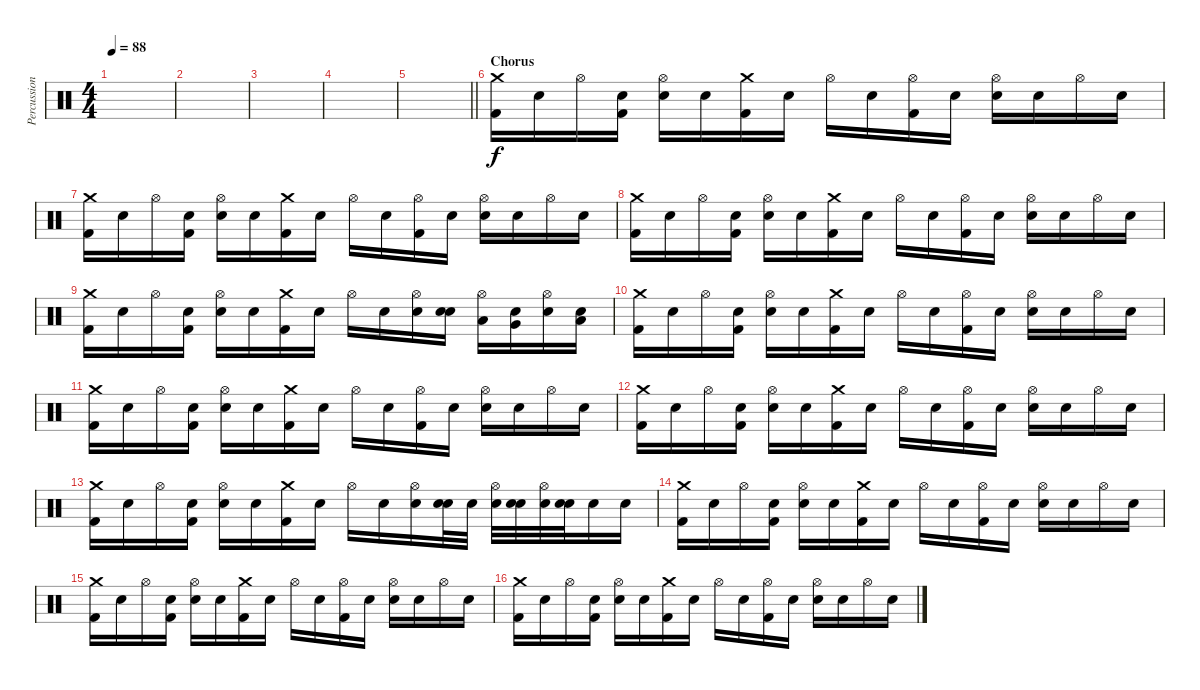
\track ("Percussion" "Percussion") {instrument percussion}
\staff {score}
\articulation defaults
\ts (4 4)
\tempo 88
\clef neutral
\ks c
|
|
|
|
\barLineRight lightlight
|
\section ("" "Chorus")
("Crash medium (hit)" "Kick (hit) 2").16 "Snare (hit)".16 "Hi-Hat (open)".16 ("Snare (hit)" "Kick (hit) 2").16 ("Hi-Hat (open)" "Electric Snare (hit)").16 "Snare (hit)".16 ("Crash medium (hit)" "Kick (hit) 2").16 "Snare (hit)".16 "Hi-Hat (open)".16 "Snare (hit)".16 ("Hi-Hat (open)" "Kick (hit) 2").16 "Snare (hit)".16 ("Hi-Hat (open)" "Electric Snare (hit)").16 "Snare (hit)".16 "Hi-Hat (open)".16 "Snare (hit)".16 |
("Crash medium (hit)" "Kick (hit) 2").16 "Snare (hit)".16 "Hi-Hat (open)".16 ("Snare (hit)" "Kick (hit) 2").16 ("Hi-Hat (open)" "Electric Snare (hit)").16 "Snare (hit)".16 ("Crash medium (hit)" "Kick (hit) 2").16 "Snare (hit)".16 "Hi-Hat (open)".16 "Snare (hit)".16 ("Hi-Hat (open)" "Kick (hit) 2").16 "Snare (hit)".16 ("Hi-Hat (open)" "Electric Snare (hit)").16 "Snare (hit)".16 "Hi-Hat (open)".16 "Snare (hit)".16 |
("Crash medium (hit)" "Kick (hit) 2").16 "Snare (hit)".16 "Hi-Hat (open)".16 ("Snare (hit)" "Kick (hit) 2").16 ("Hi-Hat (open)" "Electric Snare (hit)").16 "Snare (hit)".16 ("Crash medium (hit)" "Kick (hit) 2").16 "Snare (hit)".16 "Hi-Hat (open)".16 "Snare (hit)".16 ("Hi-Hat (open)" "Kick (hit) 2").16 "Snare (hit)".16 ("Hi-Hat (open)" "Electric Snare (hit)").16 "Snare (hit)".16 "Hi-Hat (open)".16 "Snare (hit)".16 |
("Crash medium (hit)" "Kick (hit) 2").16 "Snare (hit)".16 "Hi-Hat (open)".16 ("Snare (hit)" "Kick (hit) 2").16 ("Hi-Hat (open)" "Electric Snare (hit)").16 "Snare (hit)".16 ("Crash medium (hit)" "Kick (hit) 2").16 "Snare (hit)".16 "Hi-Hat (open)".16 "Snare (hit)".16 ("Hi-Hat (open)" "Electric Snare (hit)").16 ("Snare (hit)" "Electric Snare (hit)").16 ("Hi-Hat (open)" "Low Tom (hit)").16 ("Snare (hit)" "Very Low Tom (hit)").16 ("Hi-Hat (open)" "Electric Snare (hit)").16 ("Snare (hit)" "Low Floor Tom (hit)").16 |
("Crash medium (hit)" "Kick (hit) 2").16 "Snare (hit)".16 "Hi-Hat (open)".16 ("Snare (hit)" "Kick (hit) 2").16 ("Hi-Hat (open)" "Electric Snare (hit)").16 "Snare (hit)".16 ("Crash medium (hit)" "Kick (hit) 2").16 "Snare (hit)".16 "Hi-Hat (open)".16 "Snare (hit)".16 ("Hi-Hat (open)" "Kick (hit) 2").16 "Snare (hit)".16 ("Hi-Hat (open)" "Electric Snare (hit)").16 "Snare (hit)".16 "Hi-Hat (open)".16 "Snare (hit)".16 |
("Crash medium (hit)" "Kick (hit) 2").16 "Snare (hit)".16 "Hi-Hat (open)".16 ("Snare (hit)" "Kick (hit) 2").16 ("Hi-Hat (open)" "Electric Snare (hit)").16 "Snare (hit)".16 ("Crash medium (hit)" "Kick (hit) 2").16 "Snare (hit)".16 "Hi-Hat (open)".16 "Snare (hit)".16 ("Hi-Hat (open)" "Kick (hit) 2").16 "Snare (hit)".16 ("Hi-Hat (open)" "Electric Snare (hit)").16 "Snare (hit)".16 "Hi-Hat (open)".16 "Snare (hit)".16 |
("Crash medium (hit)" "Kick (hit) 2").16 "Snare (hit)".16 "Hi-Hat (open)".16 ("Snare (hit)" "Kick (hit) 2").16 ("Hi-Hat (open)" "Electric Snare (hit)").16 "Snare (hit)".16 ("Crash medium (hit)" "Kick (hit) 2").16 "Snare (hit)".16 "Hi-Hat (open)".16 "Snare (hit)".16 ("Hi-Hat (open)" "Kick (hit) 2").16 "Snare (hit)".16 ("Hi-Hat (open)" "Electric Snare (hit)").16 "Snare (hit)".16 "Hi-Hat (open)".16 "Snare (hit)".16 |
("Crash medium (hit)" "Kick (hit) 2").16 "Snare (hit)".16 "Hi-Hat (open)".16 ("Snare (hit)" "Kick (hit) 2").16 ("Hi-Hat (open)" "Electric Snare (hit)").16 "Snare (hit)".16 ("Crash medium (hit)" "Kick (hit) 2").16 "Snare (hit)".16 "Hi-Hat (open)".16 "Snare (hit)".16 ("Hi-Hat (open)" "Electric Snare (hit)").16 ("Snare (hit)" "Electric Snare (hit)").32 "Electric Snare (hit)".32 ("Hi-Hat (open)" "Electric Snare (hit)").32 ("Snare (hit)" "Electric Snare (hit)").32 ("Hi-Hat (open)" "Electric Snare (hit)").32 ("Snare (hit)" "Electric Snare (hit)").32 "Electric Snare (hit)".16 "Electric Snare (hit)".16 |
("Crash medium (hit)" "Kick (hit) 2").16 "Snare (hit)".16 "Hi-Hat (open)".16 ("Snare (hit)" "Kick (hit) 2").16 ("Hi-Hat (open)" "Electric Snare (hit)").16 "Snare (hit)".16 ("Crash medium (hit)" "Kick (hit) 2").16 "Snare (hit)".16 "Hi-Hat (open)".16 "Snare (hit)".16 ("Hi-Hat (open)" "Kick (hit) 2").16 "Snare (hit)".16 ("Hi-Hat (open)" "Electric Snare (hit)").16 "Snare (hit)".16 "Hi-Hat (open)".16 "Snare (hit)".16 |
("Crash medium (hit)" "Kick (hit) 2").16 "Snare (hit)".16 "Hi-Hat (open)".16 ("Snare (hit)" "Kick (hit) 2").16 ("Hi-Hat (open)" "Electric Snare (hit)").16 "Snare (hit)".16 ("Crash medium (hit)" "Kick (hit) 2").16 "Snare (hit)".16 "Hi-Hat (open)".16 "Snare (hit)".16 ("Hi-Hat (open)" "Kick (hit) 2").16 "Snare (hit)".16 ("Hi-Hat (open)" "Electric Snare (hit)").16 "Snare (hit)".16 "Hi-Hat (open)".16 "Snare (hit)".16 |
("Crash medium (hit)" "Kick (hit) 2").16 "Snare (hit)".16 "Hi-Hat (open)".16 ("Snare (hit)" "Kick (hit) 2").16 ("Hi-Hat (open)" "Electric Snare (hit)").16 "Snare (hit)".16 ("Crash medium (hit)" "Kick (hit) 2").16 "Snare (hit)".16 "Hi-Hat (open)".16 "Snare (hit)".16 ("Hi-Hat (open)" "Kick (hit) 2").16 "Snare (hit)".16 ("Hi-Hat (open)" "Electric Snare (hit)").16 "Snare (hit)".16 "Hi-Hat (open)".16 "Snare (hit)".16
